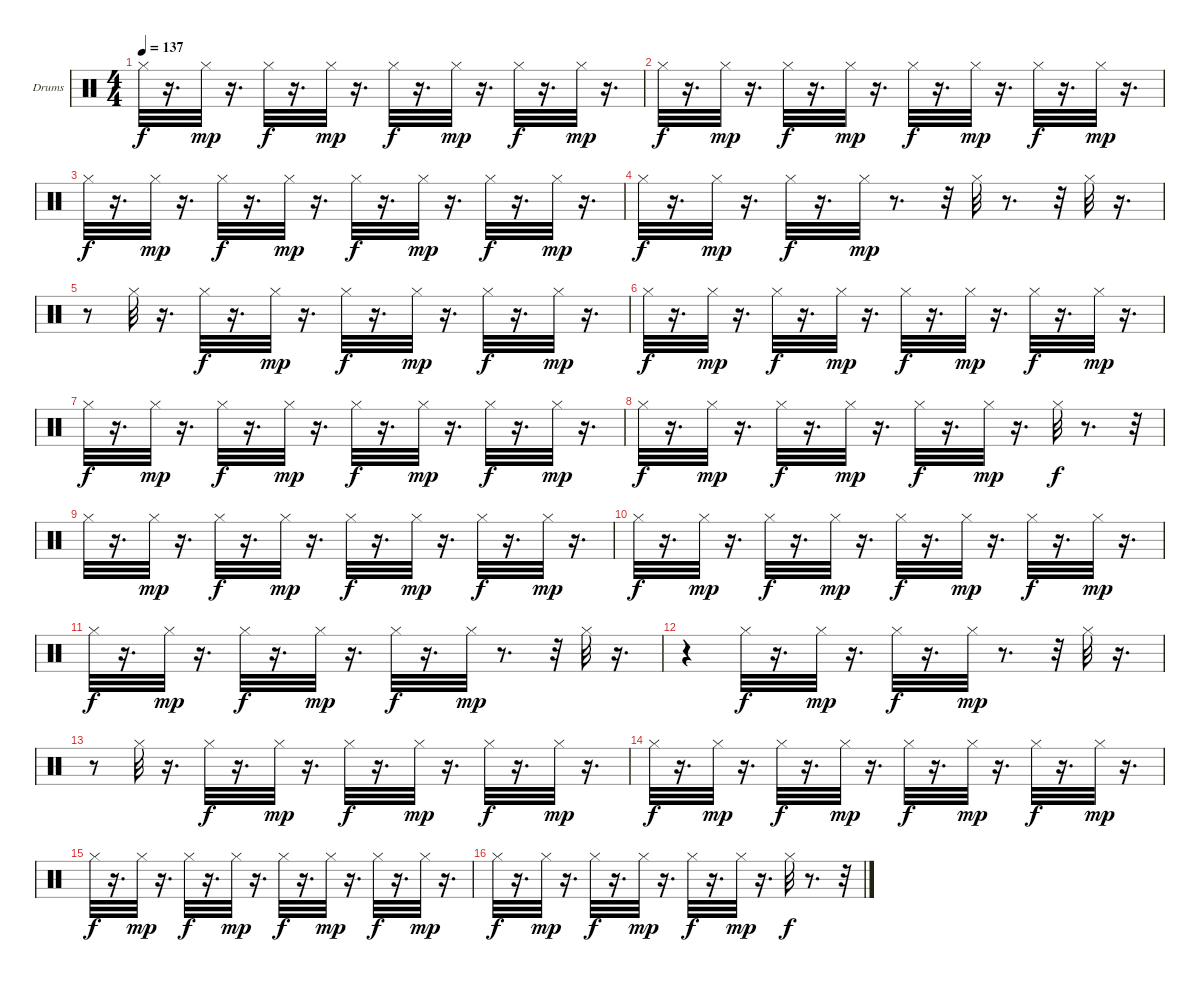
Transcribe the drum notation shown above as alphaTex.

\bracketExtendMode groupsimilarinstruments
\firstSystemTrackNameOrientation horizontal
\otherSystemsTrackNameOrientation horizontal
\track ("Drumkit" "Drums") {instrument percussion}
\staff {score}
\articulation defaults
\ts (4 4)
\tempo 137
\clef neutral
\ks c "Hi-Hat (closed)".32{dy f}
r.16{d} "Hi-Hat (closed)".32{dy mp} r.16{d} "Hi-Hat (closed)".32{dy f} r.16{d} "Hi-Hat (closed)".32{dy mp} r.16{d} "Hi-Hat (closed)".32{dy f} r.16{d} "Hi-Hat (closed)".32{dy mp} r.16{d} "Hi-Hat (closed)".32{dy f} r.16{d} "Hi-Hat (closed)".32{dy mp} r.16{d} |
"Hi-Hat (closed)".32{dy f} r.16{d} "Hi-Hat (closed)".32{dy mp} r.16{d} "Hi-Hat (closed)".32{dy f} r.16{d} "Hi-Hat (closed)".32{dy mp} r.16{d} "Hi-Hat (closed)".32{dy f} r.16{d} "Hi-Hat (closed)".32{dy mp} r.16{d} "Hi-Hat (closed)".32{dy f} r.16{d} "Hi-Hat (closed)".32{dy mp} r.16{d} |
"Hi-Hat (closed)".32{dy f} r.16{d} "Hi-Hat (closed)".32{dy mp} r.16{d} "Hi-Hat (closed)".32{dy f} r.16{d} "Hi-Hat (closed)".32{dy mp} r.16{d} "Hi-Hat (closed)".32{dy f} r.16{d} "Hi-Hat (closed)".32{dy mp} r.16{d} "Hi-Hat (closed)".32{dy f} r.16{d} "Hi-Hat (closed)".32{dy mp} r.16{d} |
"Hi-Hat (closed)".32{dy f} r.16{d} "Hi-Hat (closed)".32{dy mp} r.16{d} "Hi-Hat (closed)".32{dy f} r.16{d} "Hi-Hat (closed)".32{dy mp} r.8{d} r.32 "Hi-Hat (closed)".32 r.8{d} r.32 "Hi-Hat (closed)".32 r.16{d} |
r.8 "Hi-Hat (closed)".32 r.16{d} "Hi-Hat (closed)".32{dy f} r.16{d} "Hi-Hat (closed)".32{dy mp} r.16{d} "Hi-Hat (closed)".32{dy f} r.16{d} "Hi-Hat (closed)".32{dy mp} r.16{d} "Hi-Hat (closed)".32{dy f} r.16{d} "Hi-Hat (closed)".32{dy mp} r.16{d} |
"Hi-Hat (closed)".32{dy f} r.16{d} "Hi-Hat (closed)".32{dy mp} r.16{d} "Hi-Hat (closed)".32{dy f} r.16{d} "Hi-Hat (closed)".32{dy mp} r.16{d} "Hi-Hat (closed)".32{dy f} r.16{d} "Hi-Hat (closed)".32{dy mp} r.16{d} "Hi-Hat (closed)".32{dy f} r.16{d} "Hi-Hat (closed)".32{dy mp} r.16{d} |
"Hi-Hat (closed)".32{dy f} r.16{d} "Hi-Hat (closed)".32{dy mp} r.16{d} "Hi-Hat (closed)".32{dy f} r.16{d} "Hi-Hat (closed)".32{dy mp} r.16{d} "Hi-Hat (closed)".32{dy f} r.16{d} "Hi-Hat (closed)".32{dy mp} r.16{d} "Hi-Hat (closed)".32{dy f} r.16{d} "Hi-Hat (closed)".32{dy mp} r.16{d} |
"Hi-Hat (closed)".32{dy f} r.16{d} "Hi-Hat (closed)".32{dy mp} r.16{d} "Hi-Hat (closed)".32{dy f} r.16{d} "Hi-Hat (closed)".32{dy mp} r.16{d} "Hi-Hat (closed)".32{dy f} r.16{d} "Hi-Hat (closed)".32{dy mp} r.16{d} "Hi-Hat (closed)".32{dy f} r.8{d} r.32 |
"Hi-Hat (closed)".32 r.16{d} "Hi-Hat (closed)".32{dy mp} r.16{d} "Hi-Hat (closed)".32{dy f} r.16{d} "Hi-Hat (closed)".32{dy mp} r.16{d} "Hi-Hat (closed)".32{dy f} r.16{d} "Hi-Hat (closed)".32{dy mp} r.16{d} "Hi-Hat (closed)".32{dy f} r.16{d} "Hi-Hat (closed)".32{dy mp} r.16{d} |
"Hi-Hat (closed)".32{dy f} r.16{d} "Hi-Hat (closed)".32{dy mp} r.16{d} "Hi-Hat (closed)".32{dy f} r.16{d} "Hi-Hat (closed)".32{dy mp} r.16{d} "Hi-Hat (closed)".32{dy f} r.16{d} "Hi-Hat (closed)".32{dy mp} r.16{d} "Hi-Hat (closed)".32{dy f} r.16{d} "Hi-Hat (closed)".32{dy mp} r.16{d} |
"Hi-Hat (closed)".32{dy f} r.16{d} "Hi-Hat (closed)".32{dy mp} r.16{d} "Hi-Hat (closed)".32{dy f} r.16{d} "Hi-Hat (closed)".32{dy mp} r.16{d} "Hi-Hat (closed)".32{dy f} r.16{d} "Hi-Hat (closed)".32{dy mp} r.8{d} r.32 "Hi-Hat (closed)".32 r.16{d} |
r.4 "Hi-Hat (closed)".32{dy f} r.16{d} "Hi-Hat (closed)".32{dy mp} r.16{d} "Hi-Hat (closed)".32{dy f} r.16{d} "Hi-Hat (closed)".32{dy mp} r.8{d} r.32 "Hi-Hat (closed)".32 r.16{d} |
r.8 "Hi-Hat (closed)".32 r.16{d} "Hi-Hat (closed)".32{dy f} r.16{d} "Hi-Hat (closed)".32{dy mp} r.16{d} "Hi-Hat (closed)".32{dy f} r.16{d} "Hi-Hat (closed)".32{dy mp} r.16{d} "Hi-Hat (closed)".32{dy f} r.16{d} "Hi-Hat (closed)".32{dy mp} r.16{d} |
"Hi-Hat (closed)".32{dy f} r.16{d} "Hi-Hat (closed)".32{dy mp} r.16{d} "Hi-Hat (closed)".32{dy f} r.16{d} "Hi-Hat (closed)".32{dy mp} r.16{d} "Hi-Hat (closed)".32{dy f} r.16{d} "Hi-Hat (closed)".32{dy mp} r.16{d} "Hi-Hat (closed)".32{dy f} r.16{d} "Hi-Hat (closed)".32{dy mp} r.16{d} |
"Hi-Hat (closed)".32{dy f} r.16{d} "Hi-Hat (closed)".32{dy mp} r.16{d} "Hi-Hat (closed)".32{dy f} r.16{d} "Hi-Hat (closed)".32{dy mp} r.16{d} "Hi-Hat (closed)".32{dy f} r.16{d} "Hi-Hat (closed)".32{dy mp} r.16{d} "Hi-Hat (closed)".32{dy f} r.16{d} "Hi-Hat (closed)".32{dy mp} r.16{d} |
"Hi-Hat (closed)".32{dy f} r.16{d} "Hi-Hat (closed)".32{dy mp} r.16{d} "Hi-Hat (closed)".32{dy f} r.16{d} "Hi-Hat (closed)".32{dy mp} r.16{d} "Hi-Hat (closed)".32{dy f} r.16{d} "Hi-Hat (closed)".32{dy mp} r.16{d} "Hi-Hat (closed)".32{dy f} r.8{d} r.32
